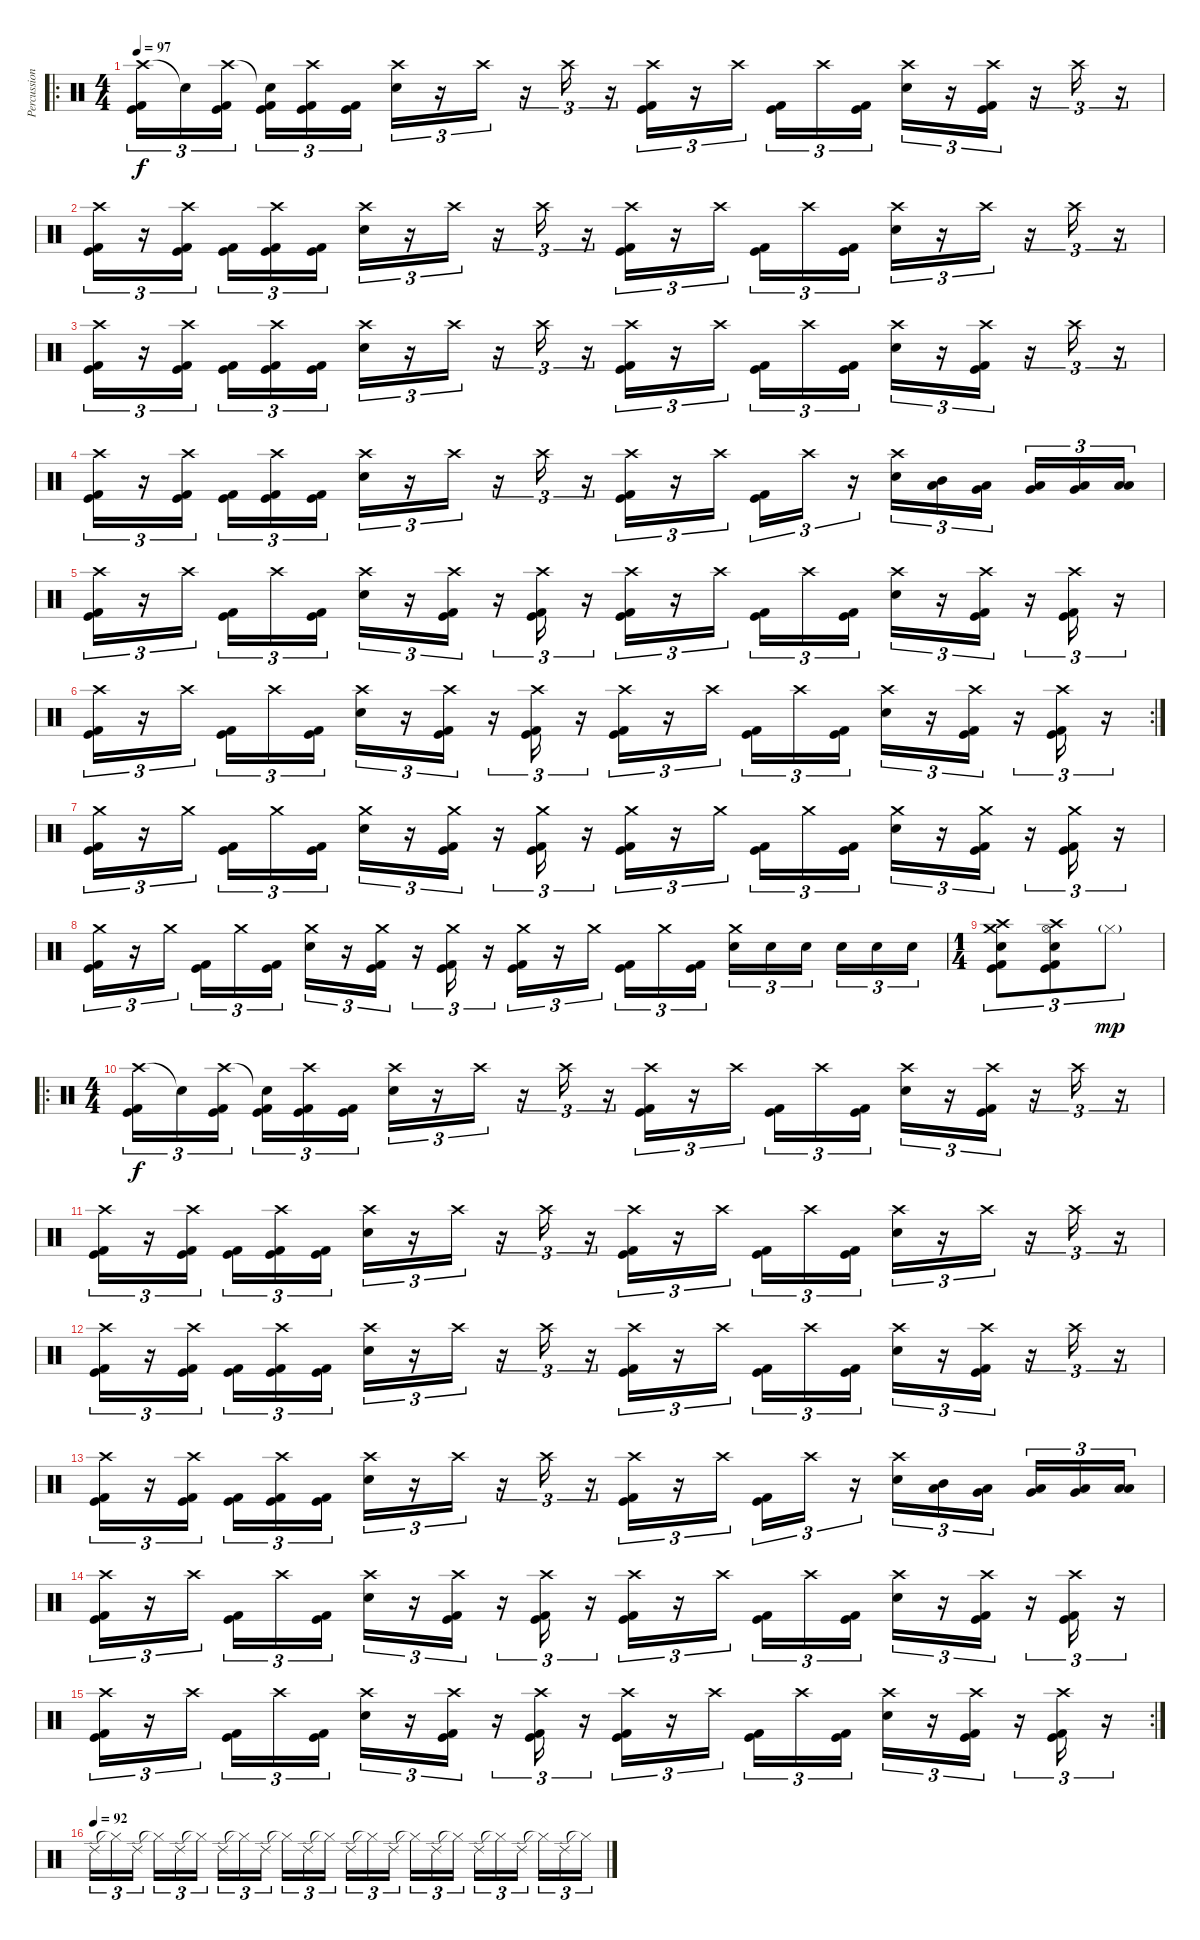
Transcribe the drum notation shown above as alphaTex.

\track ("Percussions" "Percussion") {instrument percussion}
\staff {score}
\articulation defaults
\ro
\ts (4 4)
\tempo 97
\clef neutral
\ks c
("Crash high (hit)" "Kick (hit) 2" "Kick (hit)").16{tu (3 2) dy f} "Snare (hit)"{t}.16{tu (3 2)} ("Crash high (hit)" "Kick (hit) 2" "Kick (hit)").16{tu (3 2)} ("Snare (hit)"{t} "Kick (hit) 2" "Kick (hit)").16{tu (3 2)} ("Crash high (hit)" "Kick (hit) 2" "Kick (hit)").16{tu (3 2)} ("Kick (hit) 2" "Kick (hit)").16{tu (3 2)} ("Crash high (hit)" "Electric Snare (hit)").16{tu (3 2)} r.16{tu (3 2)} "Crash high (hit)".16{tu (3 2)} r.16{tu (3 2)} "Crash high (hit)".16{tu (3 2)} r.16{tu (3 2)} ("Crash high (hit)" "Kick (hit) 2" "Kick (hit)").16{tu (3 2)} r.16{tu (3 2)} "Crash high (hit)".16{tu (3 2)} ("Kick (hit) 2" "Kick (hit)").16{tu (3 2)} "Crash high (hit)".16{tu (3 2)} ("Kick (hit) 2" "Kick (hit)").16{tu (3 2)} ("Crash high (hit)" "Electric Snare (hit)").16{tu (3 2)} r.16{tu (3 2)} ("Crash high (hit)" "Kick (hit) 2" "Kick (hit)").16{tu (3 2)} r.16{tu (3 2)} "Crash high (hit)".16{tu (3 2)} r.16{tu (3 2)} |
("Crash high (hit)" "Kick (hit) 2" "Kick (hit)").16{tu (3 2)} r.16{tu (3 2)} ("Crash high (hit)" "Kick (hit) 2" "Kick (hit)").16{tu (3 2)} ("Kick (hit) 2" "Kick (hit)").16{tu (3 2)} ("Crash high (hit)" "Kick (hit) 2" "Kick (hit)").16{tu (3 2)} ("Kick (hit) 2" "Kick (hit)").16{tu (3 2)} ("Crash high (hit)" "Electric Snare (hit)").16{tu (3 2)} r.16{tu (3 2)} "Crash high (hit)".16{tu (3 2)} r.16{tu (3 2)} "Crash high (hit)".16{tu (3 2)} r.16{tu (3 2)} ("Crash high (hit)" "Kick (hit) 2" "Kick (hit)").16{tu (3 2)} r.16{tu (3 2)} "Crash high (hit)".16{tu (3 2)} ("Kick (hit) 2" "Kick (hit)").16{tu (3 2)} "Crash high (hit)".16{tu (3 2)} ("Kick (hit) 2" "Kick (hit)").16{tu (3 2)} ("Crash high (hit)" "Electric Snare (hit)").16{tu (3 2)} r.16{tu (3 2)} "Crash high (hit)".16{tu (3 2)} r.16{tu (3 2)} "Crash high (hit)".16{tu (3 2)} r.16{tu (3 2)} |
("Crash high (hit)" "Kick (hit) 2" "Kick (hit)").16{tu (3 2)} r.16{tu (3 2)} ("Crash high (hit)" "Kick (hit) 2" "Kick (hit)").16{tu (3 2)} ("Kick (hit) 2" "Kick (hit)").16{tu (3 2)} ("Crash high (hit)" "Kick (hit) 2" "Kick (hit)").16{tu (3 2)} ("Kick (hit) 2" "Kick (hit)").16{tu (3 2)} ("Crash high (hit)" "Electric Snare (hit)").16{tu (3 2)} r.16{tu (3 2)} "Crash high (hit)".16{tu (3 2)} r.16{tu (3 2)} "Crash high (hit)".16{tu (3 2)} r.16{tu (3 2)} ("Crash high (hit)" "Kick (hit) 2" "Kick (hit)").16{tu (3 2)} r.16{tu (3 2)} "Crash high (hit)".16{tu (3 2)} ("Kick (hit) 2" "Kick (hit)").16{tu (3 2)} "Crash high (hit)".16{tu (3 2)} ("Kick (hit) 2" "Kick (hit)").16{tu (3 2)} ("Crash high (hit)" "Electric Snare (hit)").16{tu (3 2)} r.16{tu (3 2)} ("Crash high (hit)" "Kick (hit) 2" "Kick (hit)").16{tu (3 2)} r.16{tu (3 2)} "Crash high (hit)".16{tu (3 2)} r.16{tu (3 2)} |
("Crash high (hit)" "Kick (hit) 2" "Kick (hit)").16{tu (3 2)} r.16{tu (3 2)} ("Crash high (hit)" "Kick (hit) 2" "Kick (hit)").16{tu (3 2)} ("Kick (hit) 2" "Kick (hit)").16{tu (3 2)} ("Crash high (hit)" "Kick (hit) 2" "Kick (hit)").16{tu (3 2)} ("Kick (hit) 2" "Kick (hit)").16{tu (3 2)} ("Crash high (hit)" "Electric Snare (hit)").16{tu (3 2)} r.16{tu (3 2)} "Crash high (hit)".16{tu (3 2)} r.16{tu (3 2)} "Crash high (hit)".16{tu (3 2)} r.16{tu (3 2)} ("Crash high (hit)" "Kick (hit) 2" "Kick (hit)").16{tu (3 2)} r.16{tu (3 2)} "Crash high (hit)".16{tu (3 2)} ("Kick (hit) 2" "Kick (hit)").16{tu (3 2)} "Crash high (hit)".16{tu (3 2)} r.16{tu (3 2)} ("Crash high (hit)" "Electric Snare (hit)").16{tu (3 2)} ("Low Tom (hit)" "Mid Tom (hit)").16{tu (3 2)} ("Very Low Tom (hit)" "Low Tom (hit)").16{tu (3 2)} ("Very Low Tom (hit)" "Low Tom (hit)").16{tu (3 2)} ("Low Floor Tom (hit)" "Very Low Tom (hit)").16{tu (3 2)} ("Low Floor Tom (hit)" "Low Floor Tom (hit)").16{tu (3 2)} |
("Crash high (hit)" "Kick (hit) 2" "Kick (hit)").16{tu (3 2)} r.16{tu (3 2)} "Crash high (hit)".16{tu (3 2)} ("Kick (hit) 2" "Kick (hit)").16{tu (3 2)} "Crash high (hit)".16{tu (3 2)} ("Kick (hit) 2" "Kick (hit)").16{tu (3 2)} ("Crash high (hit)" "Electric Snare (hit)").16{tu (3 2)} r.16{tu (3 2)} ("Crash high (hit)" "Kick (hit)" "Kick (hit) 2").16{tu (3 2)} r.16{tu (3 2)} ("Crash high (hit)" "Kick (hit) 2" "Kick (hit)").16{tu (3 2)} r.16{tu (3 2)} ("Crash high (hit)" "Kick (hit) 2" "Kick (hit)").16{tu (3 2)} r.16{tu (3 2)} "Crash high (hit)".16{tu (3 2)} ("Kick (hit) 2" "Kick (hit)").16{tu (3 2)} "Crash high (hit)".16{tu (3 2)} ("Kick (hit) 2" "Kick (hit)").16{tu (3 2)} ("Crash high (hit)" "Electric Snare (hit)").16{tu (3 2)} r.16{tu (3 2)} ("Crash high (hit)" "Kick (hit) 2" "Kick (hit)").16{tu (3 2)} r.16{tu (3 2)} ("Crash high (hit)" "Kick (hit) 2" "Kick (hit)").16{tu (3 2)} r.16{tu (3 2)} |
\rc 2
("Crash high (hit)" "Kick (hit) 2" "Kick (hit)").16{tu (3 2)} r.16{tu (3 2)} "Crash high (hit)".16{tu (3 2)} ("Kick (hit) 2" "Kick (hit)").16{tu (3 2)} "Crash high (hit)".16{tu (3 2)} ("Kick (hit) 2" "Kick (hit)").16{tu (3 2)} ("Crash high (hit)" "Electric Snare (hit)").16{tu (3 2)} r.16{tu (3 2)} ("Crash high (hit)" "Kick (hit)" "Kick (hit) 2").16{tu (3 2)} r.16{tu (3 2)} ("Crash high (hit)" "Kick (hit) 2" "Kick (hit)").16{tu (3 2)} r.16{tu (3 2)} ("Crash high (hit)" "Kick (hit) 2" "Kick (hit)").16{tu (3 2)} r.16{tu (3 2)} "Crash high (hit)".16{tu (3 2)} ("Kick (hit) 2" "Kick (hit)").16{tu (3 2)} "Crash high (hit)".16{tu (3 2)} ("Kick (hit) 2" "Kick (hit)").16{tu (3 2)} ("Crash high (hit)" "Electric Snare (hit)").16{tu (3 2)} r.16{tu (3 2)} ("Crash high (hit)" "Kick (hit) 2" "Kick (hit)").16{tu (3 2)} r.16{tu (3 2)} ("Crash high (hit)" "Kick (hit) 2" "Kick (hit)").16{tu (3 2)} r.16{tu (3 2)} |
("Crash medium (hit)" "Kick (hit) 2" "Kick (hit)").16{tu (3 2)} r.16{tu (3 2)} "Crash medium (hit)".16{tu (3 2)} ("Kick (hit) 2" "Kick (hit)").16{tu (3 2)} "Crash medium (hit)".16{tu (3 2)} ("Kick (hit) 2" "Kick (hit)").16{tu (3 2)} ("Crash medium (hit)" "Electric Snare (hit)").16{tu (3 2)} r.16{tu (3 2)} ("Crash medium (hit)" "Kick (hit)" "Kick (hit) 2").16{tu (3 2)} r.16{tu (3 2)} ("Crash medium (hit)" "Kick (hit) 2" "Kick (hit)").16{tu (3 2)} r.16{tu (3 2)} ("Crash medium (hit)" "Kick (hit) 2" "Kick (hit)").16{tu (3 2)} r.16{tu (3 2)} "Crash medium (hit)".16{tu (3 2)} ("Kick (hit) 2" "Kick (hit)").16{tu (3 2)} "Crash medium (hit)".16{tu (3 2)} ("Kick (hit) 2" "Kick (hit)").16{tu (3 2)} ("Crash medium (hit)" "Electric Snare (hit)").16{tu (3 2)} r.16{tu (3 2)} ("Crash medium (hit)" "Kick (hit) 2" "Kick (hit)").16{tu (3 2)} r.16{tu (3 2)} ("Crash medium (hit)" "Kick (hit) 2" "Kick (hit)").16{tu (3 2)} r.16{tu (3 2)} |
("Crash medium (hit)" "Kick (hit) 2" "Kick (hit)").16{tu (3 2)} r.16{tu (3 2)} "Crash medium (hit)".16{tu (3 2)} ("Kick (hit) 2" "Kick (hit)").16{tu (3 2)} "Crash medium (hit)".16{tu (3 2)} ("Kick (hit) 2" "Kick (hit)").16{tu (3 2)} ("Crash medium (hit)" "Electric Snare (hit)").16{tu (3 2)} r.16{tu (3 2)} ("Crash medium (hit)" "Kick (hit)" "Kick (hit) 2").16{tu (3 2)} r.16{tu (3 2)} ("Crash medium (hit)" "Kick (hit) 2" "Kick (hit)").16{tu (3 2)} r.16{tu (3 2)} ("Crash medium (hit)" "Kick (hit) 2" "Kick (hit)").16{tu (3 2)} r.16{tu (3 2)} "Crash medium (hit)".16{tu (3 2)} ("Kick (hit) 2" "Kick (hit)").16{tu (3 2)} "Crash medium (hit)".16{tu (3 2)} ("Kick (hit) 2" "Kick (hit)").16{tu (3 2)} ("Crash medium (hit)" "Electric Snare (hit)").16{tu (3 2)} "Electric Snare (hit)".16{tu (3 2)} "Electric Snare (hit)".16{tu (3 2)} "Electric Snare (hit)".16{tu (3 2)} "Electric Snare (hit)".16{tu (3 2)} "Electric Snare (hit)".16{tu (3 2)} |
\ts (1 4)
("Crash high (hit)" "Crash medium (hit)" "Electric Snare (hit)" "Kick (hit)" "Kick (hit) 2").8{tu (3 2)} ("Crash high (hit)" "Hi-Hat (open)" "Electric Snare (hit)" "Kick (hit)" "Kick (hit) 2").8{tu (3 2)} "Hi-Hat (closed)"{g}.8{tu (3 2) dy mp} |
\ro
\ts (4 4)
("Crash high (hit)" "Kick (hit) 2" "Kick (hit)").16{tu (3 2) dy f} "Snare (hit)"{t}.16{tu (3 2)} ("Crash high (hit)" "Kick (hit) 2" "Kick (hit)").16{tu (3 2)} ("Snare (hit)"{t} "Kick (hit) 2" "Kick (hit)").16{tu (3 2)} ("Crash high (hit)" "Kick (hit) 2" "Kick (hit)").16{tu (3 2)} ("Kick (hit) 2" "Kick (hit)").16{tu (3 2)} ("Crash high (hit)" "Electric Snare (hit)").16{tu (3 2)} r.16{tu (3 2)} "Crash high (hit)".16{tu (3 2)} r.16{tu (3 2)} "Crash high (hit)".16{tu (3 2)} r.16{tu (3 2)} ("Crash high (hit)" "Kick (hit) 2" "Kick (hit)").16{tu (3 2)} r.16{tu (3 2)} "Crash high (hit)".16{tu (3 2)} ("Kick (hit) 2" "Kick (hit)").16{tu (3 2)} "Crash high (hit)".16{tu (3 2)} ("Kick (hit) 2" "Kick (hit)").16{tu (3 2)} ("Crash high (hit)" "Electric Snare (hit)").16{tu (3 2)} r.16{tu (3 2)} ("Crash high (hit)" "Kick (hit) 2" "Kick (hit)").16{tu (3 2)} r.16{tu (3 2)} "Crash high (hit)".16{tu (3 2)} r.16{tu (3 2)} |
("Crash high (hit)" "Kick (hit) 2" "Kick (hit)").16{tu (3 2)} r.16{tu (3 2)} ("Crash high (hit)" "Kick (hit) 2" "Kick (hit)").16{tu (3 2)} ("Kick (hit) 2" "Kick (hit)").16{tu (3 2)} ("Crash high (hit)" "Kick (hit) 2" "Kick (hit)").16{tu (3 2)} ("Kick (hit) 2" "Kick (hit)").16{tu (3 2)} ("Crash high (hit)" "Electric Snare (hit)").16{tu (3 2)} r.16{tu (3 2)} "Crash high (hit)".16{tu (3 2)} r.16{tu (3 2)} "Crash high (hit)".16{tu (3 2)} r.16{tu (3 2)} ("Crash high (hit)" "Kick (hit) 2" "Kick (hit)").16{tu (3 2)} r.16{tu (3 2)} "Crash high (hit)".16{tu (3 2)} ("Kick (hit) 2" "Kick (hit)").16{tu (3 2)} "Crash high (hit)".16{tu (3 2)} ("Kick (hit) 2" "Kick (hit)").16{tu (3 2)} ("Crash high (hit)" "Electric Snare (hit)").16{tu (3 2)} r.16{tu (3 2)} "Crash high (hit)".16{tu (3 2)} r.16{tu (3 2)} "Crash high (hit)".16{tu (3 2)} r.16{tu (3 2)} |
("Crash high (hit)" "Kick (hit) 2" "Kick (hit)").16{tu (3 2)} r.16{tu (3 2)} ("Crash high (hit)" "Kick (hit) 2" "Kick (hit)").16{tu (3 2)} ("Kick (hit) 2" "Kick (hit)").16{tu (3 2)} ("Crash high (hit)" "Kick (hit) 2" "Kick (hit)").16{tu (3 2)} ("Kick (hit) 2" "Kick (hit)").16{tu (3 2)} ("Crash high (hit)" "Electric Snare (hit)").16{tu (3 2)} r.16{tu (3 2)} "Crash high (hit)".16{tu (3 2)} r.16{tu (3 2)} "Crash high (hit)".16{tu (3 2)} r.16{tu (3 2)} ("Crash high (hit)" "Kick (hit) 2" "Kick (hit)").16{tu (3 2)} r.16{tu (3 2)} "Crash high (hit)".16{tu (3 2)} ("Kick (hit) 2" "Kick (hit)").16{tu (3 2)} "Crash high (hit)".16{tu (3 2)} ("Kick (hit) 2" "Kick (hit)").16{tu (3 2)} ("Crash high (hit)" "Electric Snare (hit)").16{tu (3 2)} r.16{tu (3 2)} ("Crash high (hit)" "Kick (hit) 2" "Kick (hit)").16{tu (3 2)} r.16{tu (3 2)} "Crash high (hit)".16{tu (3 2)} r.16{tu (3 2)} |
("Crash high (hit)" "Kick (hit) 2" "Kick (hit)").16{tu (3 2)} r.16{tu (3 2)} ("Crash high (hit)" "Kick (hit) 2" "Kick (hit)").16{tu (3 2)} ("Kick (hit) 2" "Kick (hit)").16{tu (3 2)} ("Crash high (hit)" "Kick (hit) 2" "Kick (hit)").16{tu (3 2)} ("Kick (hit) 2" "Kick (hit)").16{tu (3 2)} ("Crash high (hit)" "Electric Snare (hit)").16{tu (3 2)} r.16{tu (3 2)} "Crash high (hit)".16{tu (3 2)} r.16{tu (3 2)} "Crash high (hit)".16{tu (3 2)} r.16{tu (3 2)} ("Crash high (hit)" "Kick (hit) 2" "Kick (hit)").16{tu (3 2)} r.16{tu (3 2)} "Crash high (hit)".16{tu (3 2)} ("Kick (hit) 2" "Kick (hit)").16{tu (3 2)} "Crash high (hit)".16{tu (3 2)} r.16{tu (3 2)} ("Crash high (hit)" "Electric Snare (hit)").16{tu (3 2)} ("Low Tom (hit)" "Mid Tom (hit)").16{tu (3 2)} ("Very Low Tom (hit)" "Low Tom (hit)").16{tu (3 2)} ("Very Low Tom (hit)" "Low Tom (hit)").16{tu (3 2)} ("Low Floor Tom (hit)" "Very Low Tom (hit)").16{tu (3 2)} ("Low Floor Tom (hit)" "Low Floor Tom (hit)").16{tu (3 2)} |
("Crash high (hit)" "Kick (hit) 2" "Kick (hit)").16{tu (3 2)} r.16{tu (3 2)} "Crash high (hit)".16{tu (3 2)} ("Kick (hit) 2" "Kick (hit)").16{tu (3 2)} "Crash high (hit)".16{tu (3 2)} ("Kick (hit) 2" "Kick (hit)").16{tu (3 2)} ("Crash high (hit)" "Electric Snare (hit)").16{tu (3 2)} r.16{tu (3 2)} ("Crash high (hit)" "Kick (hit)" "Kick (hit) 2").16{tu (3 2)} r.16{tu (3 2)} ("Crash high (hit)" "Kick (hit) 2" "Kick (hit)").16{tu (3 2)} r.16{tu (3 2)} ("Crash high (hit)" "Kick (hit) 2" "Kick (hit)").16{tu (3 2)} r.16{tu (3 2)} "Crash high (hit)".16{tu (3 2)} ("Kick (hit) 2" "Kick (hit)").16{tu (3 2)} "Crash high (hit)".16{tu (3 2)} ("Kick (hit) 2" "Kick (hit)").16{tu (3 2)} ("Crash high (hit)" "Electric Snare (hit)").16{tu (3 2)} r.16{tu (3 2)} ("Crash high (hit)" "Kick (hit) 2" "Kick (hit)").16{tu (3 2)} r.16{tu (3 2)} ("Crash high (hit)" "Kick (hit) 2" "Kick (hit)").16{tu (3 2)} r.16{tu (3 2)} |
\rc 2
("Crash high (hit)" "Kick (hit) 2" "Kick (hit)").16{tu (3 2)} r.16{tu (3 2)} "Crash high (hit)".16{tu (3 2)} ("Kick (hit) 2" "Kick (hit)").16{tu (3 2)} "Crash high (hit)".16{tu (3 2)} ("Kick (hit) 2" "Kick (hit)").16{tu (3 2)} ("Crash high (hit)" "Electric Snare (hit)").16{tu (3 2)} r.16{tu (3 2)} ("Crash high (hit)" "Kick (hit)" "Kick (hit) 2").16{tu (3 2)} r.16{tu (3 2)} ("Crash high (hit)" "Kick (hit) 2" "Kick (hit)").16{tu (3 2)} r.16{tu (3 2)} ("Crash high (hit)" "Kick (hit) 2" "Kick (hit)").16{tu (3 2)} r.16{tu (3 2)} "Crash high (hit)".16{tu (3 2)} ("Kick (hit) 2" "Kick (hit)").16{tu (3 2)} "Crash high (hit)".16{tu (3 2)} ("Kick (hit) 2" "Kick (hit)").16{tu (3 2)} ("Crash high (hit)" "Electric Snare (hit)").16{tu (3 2)} r.16{tu (3 2)} ("Crash high (hit)" "Kick (hit) 2" "Kick (hit)").16{tu (3 2)} r.16{tu (3 2)} ("Crash high (hit)" "Kick (hit) 2" "Kick (hit)").16{tu (3 2)} r.16{tu (3 2)} |
\tempo (92)
"Ride (edge) 2".16{tu (3 2)} "Hi-Hat (closed)"{t}.16{tu (3 2)} "Ride (edge) 2".16{tu (3 2)} "Hi-Hat (closed)"{t}.16{tu (3 2)} "Ride (edge) 2".16{tu (3 2)} "Hi-Hat (closed)"{t}.16{tu (3 2)} "Ride (edge) 2".16{tu (3 2)} "Hi-Hat (closed)"{t}.16{tu (3 2)} "Ride (edge) 2".16{tu (3 2)} "Hi-Hat (closed)"{t}.16{tu (3 2)} "Ride (edge) 2".16{tu (3 2)} "Hi-Hat (closed)"{t}.16{tu (3 2)} "Ride (edge) 2".16{tu (3 2)} "Hi-Hat (closed)"{t}.16{tu (3 2)} "Ride (edge) 2".16{tu (3 2)} "Hi-Hat (closed)"{t}.16{tu (3 2)} "Ride (edge) 2".16{tu (3 2)} "Hi-Hat (closed)"{t}.16{tu (3 2)} "Ride (edge) 2".16{tu (3 2)} "Hi-Hat (closed)"{t}.16{tu (3 2)} "Ride (edge) 2".16{tu (3 2)} "Hi-Hat (closed)"{t}.16{tu (3 2)} "Ride (edge) 2".16{tu (3 2)} "Hi-Hat (closed)"{t}.16{tu (3 2)}
